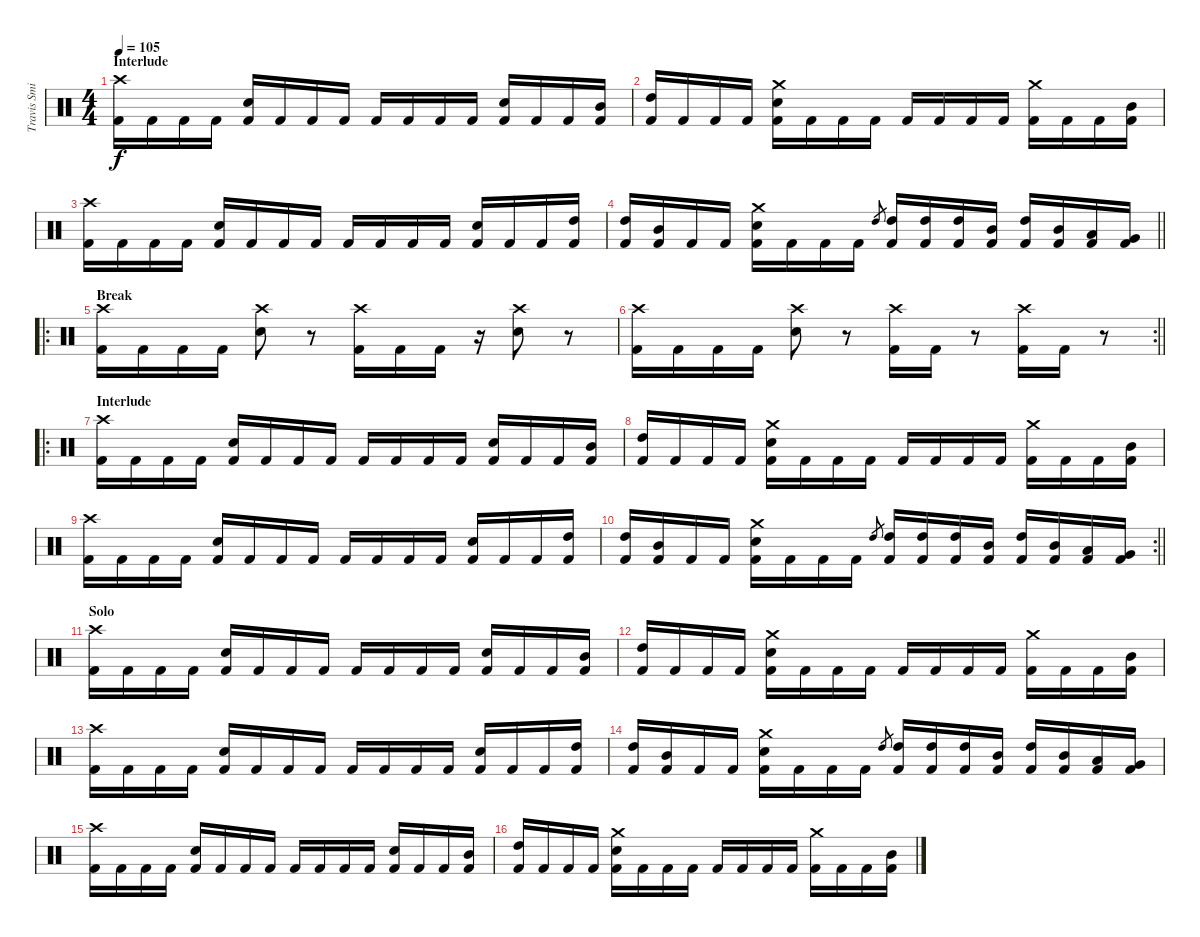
\track ("Travis Smith" "Travis Smi") {instrument percussion}
\staff {score}
\articulation defaults
\ts (4 4)
\section ("" "Interlude")
\tempo 105
\clef neutral
\ks c
("Crash high (hit)" "Kick (hit) 2").16{dy f} "Kick (hit) 2".16 "Kick (hit) 2".16 "Kick (hit) 2".16 ("Snare (hit) 2" "Kick (hit) 2").16 "Kick (hit) 2".16 "Kick (hit) 2".16 "Kick (hit) 2".16 "Kick (hit) 2".16 "Kick (hit) 2".16 "Kick (hit) 2".16 "Kick (hit) 2".16 ("Snare (hit) 2" "Kick (hit) 2").16 "Kick (hit) 2".16 "Kick (hit) 2".16 ("Mid Tom (hit)" "Kick (hit) 2").16 |
("High Tom (hit)" "Kick (hit) 2").16 "Kick (hit) 2".16 "Kick (hit) 2".16 "Kick (hit) 2".16 ("Crash medium (hit)" "Snare (hit) 2" "Kick (hit) 2").16 "Kick (hit) 2".16 "Kick (hit) 2".16 "Kick (hit) 2".16 "Kick (hit) 2".16 "Kick (hit) 2".16 "Kick (hit) 2".16 "Kick (hit) 2".16 ("Crash medium (hit)" "Kick (hit) 2").16 "Kick (hit) 2".16 "Kick (hit) 2".16 ("Mid Tom (hit)" "Kick (hit) 2").16 |
("Crash high (hit)" "Kick (hit) 2").16 "Kick (hit) 2".16 "Kick (hit) 2".16 "Kick (hit) 2".16 ("Snare (hit) 2" "Kick (hit) 2").16 "Kick (hit) 2".16 "Kick (hit) 2".16 "Kick (hit) 2".16 "Kick (hit) 2".16 "Kick (hit) 2".16 "Kick (hit) 2".16 "Kick (hit) 2".16 ("Snare (hit) 2" "Kick (hit) 2").16 "Kick (hit) 2".16 "Kick (hit) 2".16 ("High Tom (hit)" "Kick (hit) 2").16 |
\barLineRight lightlight
("High Tom (hit)" "Kick (hit) 2").16 ("Mid Tom (hit)" "Kick (hit) 2").16 "Kick (hit) 2".16 "Kick (hit) 2".16 ("Crash medium (hit)" "Snare (hit) 2" "Kick (hit) 2").16 "Kick (hit) 2".16 "Kick (hit) 2".16 "Kick (hit) 2".16 "High Tom (hit)".8{gr} ("High Tom (hit)" "Kick (hit) 2").16 ("High Tom (hit)" "Kick (hit) 2").16 ("High Tom (hit)" "Kick (hit) 2").16 ("Mid Tom (hit)" "Kick (hit) 2").16 ("High Tom (hit)" "Kick (hit) 2").16 ("Mid Tom (hit)" "Kick (hit) 2").16 ("Low Tom (hit)" "Kick (hit) 2").16 ("Very Low Tom (hit)" "Kick (hit) 2").16 |
\ro
\section ("" "Break")
("Crash high (hit)" "Kick (hit) 2").16 "Kick (hit) 2".16 "Kick (hit) 2".16 "Kick (hit) 2".16 ("Crash high (hit)" "Snare (hit) 2").8 r.8 ("Crash high (hit)" "Kick (hit) 2").16 "Kick (hit) 2".16 "Kick (hit) 2".16 r.16 ("Crash high (hit)" "Snare (hit) 2").8 r.8 |
\rc 2
\barLineRight lightlight
("Crash high (hit)" "Kick (hit) 2").16 "Kick (hit) 2".16 "Kick (hit) 2".16 "Kick (hit) 2".16 ("Crash high (hit)" "Snare (hit) 2").8 r.8 ("Crash high (hit)" "Kick (hit) 2").16 "Kick (hit) 2".16 r.8 ("Crash high (hit)" "Kick (hit) 2").16 "Kick (hit) 2".16 r.8 |
\ro
\section ("" "Interlude")
("Crash high (hit)" "Kick (hit) 2").16 "Kick (hit) 2".16 "Kick (hit) 2".16 "Kick (hit) 2".16 ("Snare (hit) 2" "Kick (hit) 2").16 "Kick (hit) 2".16 "Kick (hit) 2".16 "Kick (hit) 2".16 "Kick (hit) 2".16 "Kick (hit) 2".16 "Kick (hit) 2".16 "Kick (hit) 2".16 ("Snare (hit) 2" "Kick (hit) 2").16 "Kick (hit) 2".16 "Kick (hit) 2".16 ("Mid Tom (hit)" "Kick (hit) 2").16 |
("High Tom (hit)" "Kick (hit) 2").16 "Kick (hit) 2".16 "Kick (hit) 2".16 "Kick (hit) 2".16 ("Crash medium (hit)" "Snare (hit) 2" "Kick (hit) 2").16 "Kick (hit) 2".16 "Kick (hit) 2".16 "Kick (hit) 2".16 "Kick (hit) 2".16 "Kick (hit) 2".16 "Kick (hit) 2".16 "Kick (hit) 2".16 ("Crash medium (hit)" "Kick (hit) 2").16 "Kick (hit) 2".16 "Kick (hit) 2".16 ("Mid Tom (hit)" "Kick (hit) 2").16 |
("Crash high (hit)" "Kick (hit) 2").16 "Kick (hit) 2".16 "Kick (hit) 2".16 "Kick (hit) 2".16 ("Snare (hit) 2" "Kick (hit) 2").16 "Kick (hit) 2".16 "Kick (hit) 2".16 "Kick (hit) 2".16 "Kick (hit) 2".16 "Kick (hit) 2".16 "Kick (hit) 2".16 "Kick (hit) 2".16 ("Snare (hit) 2" "Kick (hit) 2").16 "Kick (hit) 2".16 "Kick (hit) 2".16 ("High Tom (hit)" "Kick (hit) 2").16 |
\rc 2
\barLineRight lightlight
("High Tom (hit)" "Kick (hit) 2").16 ("Mid Tom (hit)" "Kick (hit) 2").16 "Kick (hit) 2".16 "Kick (hit) 2".16 ("Crash medium (hit)" "Snare (hit) 2" "Kick (hit) 2").16 "Kick (hit) 2".16 "Kick (hit) 2".16 "Kick (hit) 2".16 "High Tom (hit)".8{gr} ("High Tom (hit)" "Kick (hit) 2").16 ("High Tom (hit)" "Kick (hit) 2").16 ("High Tom (hit)" "Kick (hit) 2").16 ("Mid Tom (hit)" "Kick (hit) 2").16 ("High Tom (hit)" "Kick (hit) 2").16 ("Mid Tom (hit)" "Kick (hit) 2").16 ("Low Tom (hit)" "Kick (hit) 2").16 ("Very Low Tom (hit)" "Kick (hit) 2").16 |
\section ("" "Solo")
("Crash high (hit)" "Kick (hit) 2").16 "Kick (hit) 2".16 "Kick (hit) 2".16 "Kick (hit) 2".16 ("Snare (hit) 2" "Kick (hit) 2").16 "Kick (hit) 2".16 "Kick (hit) 2".16 "Kick (hit) 2".16 "Kick (hit) 2".16 "Kick (hit) 2".16 "Kick (hit) 2".16 "Kick (hit) 2".16 ("Snare (hit) 2" "Kick (hit) 2").16 "Kick (hit) 2".16 "Kick (hit) 2".16 ("Mid Tom (hit)" "Kick (hit) 2").16 |
("High Tom (hit)" "Kick (hit) 2").16 "Kick (hit) 2".16 "Kick (hit) 2".16 "Kick (hit) 2".16 ("Crash medium (hit)" "Snare (hit) 2" "Kick (hit) 2").16 "Kick (hit) 2".16 "Kick (hit) 2".16 "Kick (hit) 2".16 "Kick (hit) 2".16 "Kick (hit) 2".16 "Kick (hit) 2".16 "Kick (hit) 2".16 ("Crash medium (hit)" "Kick (hit) 2").16 "Kick (hit) 2".16 "Kick (hit) 2".16 ("Mid Tom (hit)" "Kick (hit) 2").16 |
("Crash high (hit)" "Kick (hit) 2").16 "Kick (hit) 2".16 "Kick (hit) 2".16 "Kick (hit) 2".16 ("Snare (hit) 2" "Kick (hit) 2").16 "Kick (hit) 2".16 "Kick (hit) 2".16 "Kick (hit) 2".16 "Kick (hit) 2".16 "Kick (hit) 2".16 "Kick (hit) 2".16 "Kick (hit) 2".16 ("Snare (hit) 2" "Kick (hit) 2").16 "Kick (hit) 2".16 "Kick (hit) 2".16 ("High Tom (hit)" "Kick (hit) 2").16 |
("High Tom (hit)" "Kick (hit) 2").16 ("Mid Tom (hit)" "Kick (hit) 2").16 "Kick (hit) 2".16 "Kick (hit) 2".16 ("Crash medium (hit)" "Snare (hit) 2" "Kick (hit) 2").16 "Kick (hit) 2".16 "Kick (hit) 2".16 "Kick (hit) 2".16 "High Tom (hit)".8{gr} ("High Tom (hit)" "Kick (hit) 2").16 ("High Tom (hit)" "Kick (hit) 2").16 ("High Tom (hit)" "Kick (hit) 2").16 ("Mid Tom (hit)" "Kick (hit) 2").16 ("High Tom (hit)" "Kick (hit) 2").16 ("Mid Tom (hit)" "Kick (hit) 2").16 ("Low Tom (hit)" "Kick (hit) 2").16 ("Very Low Tom (hit)" "Kick (hit) 2").16 |
("Crash high (hit)" "Kick (hit) 2").16 "Kick (hit) 2".16 "Kick (hit) 2".16 "Kick (hit) 2".16 ("Snare (hit) 2" "Kick (hit) 2").16 "Kick (hit) 2".16 "Kick (hit) 2".16 "Kick (hit) 2".16 "Kick (hit) 2".16 "Kick (hit) 2".16 "Kick (hit) 2".16 "Kick (hit) 2".16 ("Snare (hit) 2" "Kick (hit) 2").16 "Kick (hit) 2".16 "Kick (hit) 2".16 ("Mid Tom (hit)" "Kick (hit) 2").16 |
("High Tom (hit)" "Kick (hit) 2").16 "Kick (hit) 2".16 "Kick (hit) 2".16 "Kick (hit) 2".16 ("Crash medium (hit)" "Snare (hit) 2" "Kick (hit) 2").16 "Kick (hit) 2".16 "Kick (hit) 2".16 "Kick (hit) 2".16 "Kick (hit) 2".16 "Kick (hit) 2".16 "Kick (hit) 2".16 "Kick (hit) 2".16 ("Crash medium (hit)" "Kick (hit) 2").16 "Kick (hit) 2".16 "Kick (hit) 2".16 ("Mid Tom (hit)" "Kick (hit) 2").16
